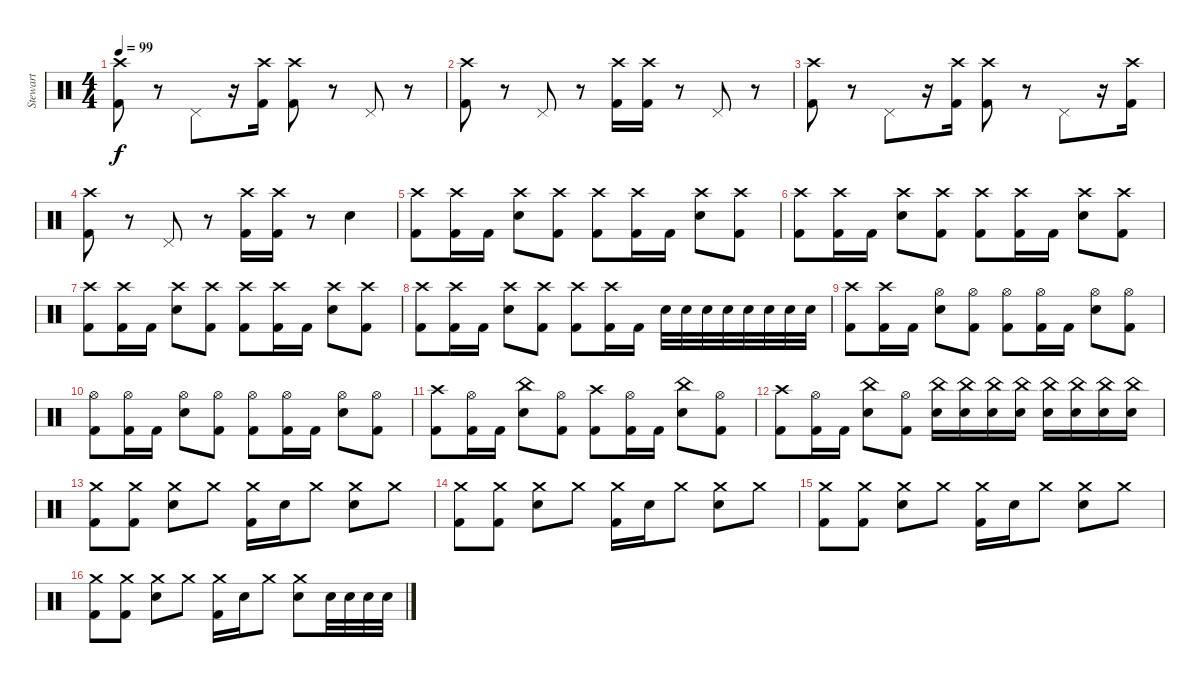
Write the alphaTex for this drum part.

\track ("Stewart" "Stewart") {instrument percussion}
\staff {score}
\articulation defaults
\ts (4 4)
\tempo 99
\clef neutral
\ks c
("Crash high (hit)" "Kick (hit) 2").8{dy f} r.8 "Pedal Hi-Hat (hit)".8 r.16 ("Crash high (hit)" "Kick (hit) 2").16 ("Crash high (hit)" "Kick (hit) 2").8 r.8 "Pedal Hi-Hat (hit)".8 r.8 |
("Crash high (hit)" "Kick (hit) 2").8 r.8 "Pedal Hi-Hat (hit)".8 r.8 ("Crash high (hit)" "Kick (hit) 2").16 ("Crash high (hit)" "Kick (hit) 2").16 r.8 "Pedal Hi-Hat (hit)".8 r.8 |
("Crash high (hit)" "Kick (hit) 2").8 r.8 "Pedal Hi-Hat (hit)".8 r.16 ("Crash high (hit)" "Kick (hit) 2").16 ("Crash high (hit)" "Kick (hit) 2").8 r.8 "Pedal Hi-Hat (hit)".8 r.16 ("Crash high (hit)" "Kick (hit) 2").16 |
("Crash high (hit)" "Kick (hit) 2").8 r.8 "Pedal Hi-Hat (hit)".8 r.8 ("Crash high (hit)" "Kick (hit) 2").16 ("Crash high (hit)" "Kick (hit) 2").16 r.8 "Electric Snare (hit)".4 |
("Crash high (hit)" "Kick (hit) 2").8 ("Crash high (hit)" "Kick (hit) 2").16 "Kick (hit) 2".16 ("Crash high (hit)" "Snare (hit) 2").8 ("Crash high (hit)" "Kick (hit) 2").8 ("Crash high (hit)" "Kick (hit) 2").8 ("Crash high (hit)" "Kick (hit) 2").16 "Kick (hit) 2".16 ("Crash high (hit)" "Snare (hit) 2").8 ("Crash high (hit)" "Kick (hit) 2").8 |
("Crash high (hit)" "Kick (hit) 2").8 ("Crash high (hit)" "Kick (hit) 2").16 "Kick (hit) 2".16 ("Crash high (hit)" "Snare (hit) 2").8 ("Crash high (hit)" "Kick (hit) 2").8 ("Crash high (hit)" "Kick (hit) 2").8 ("Crash high (hit)" "Kick (hit) 2").16 "Kick (hit) 2".16 ("Crash high (hit)" "Snare (hit) 2").8 ("Crash high (hit)" "Kick (hit) 2").8 |
("Crash high (hit)" "Kick (hit) 2").8 ("Crash high (hit)" "Kick (hit) 2").16 "Kick (hit) 2".16 ("Crash high (hit)" "Snare (hit) 2").8 ("Crash high (hit)" "Kick (hit) 2").8 ("Crash high (hit)" "Kick (hit) 2").8 ("Crash high (hit)" "Kick (hit) 2").16 "Kick (hit) 2".16 ("Crash high (hit)" "Snare (hit) 2").8 ("Crash high (hit)" "Kick (hit) 2").8 |
("Crash high (hit)" "Kick (hit) 2").8 ("Crash high (hit)" "Kick (hit) 2").16 "Kick (hit) 2".16 ("Crash high (hit)" "Snare (hit) 2").8 ("Crash high (hit)" "Kick (hit) 2").8 ("Crash high (hit)" "Kick (hit) 2").8 ("Crash high (hit)" "Kick (hit) 2").16 "Kick (hit) 2".16 "Snare (hit) 2".32 "Snare (hit) 2".32 "Snare (hit) 2".32 "Snare (hit) 2".32 "Snare (hit) 2".32 "Snare (hit) 2".32 "Snare (hit) 2".32 "Snare (hit) 2".32 |
("Crash high (hit)" "Kick (hit) 2").8 ("Crash high (hit)" "Kick (hit) 2").16 "Kick (hit) 2".16 ("Hi-Hat (open)" "Snare (hit) 2").8 ("Hi-Hat (open)" "Kick (hit) 2").8 ("Hi-Hat (open)" "Kick (hit) 2").8 ("Hi-Hat (open)" "Kick (hit) 2").16 "Kick (hit) 2".16 ("Hi-Hat (open)" "Snare (hit) 2").8 ("Hi-Hat (open)" "Kick (hit) 2").8 |
("Hi-Hat (open)" "Kick (hit) 2").8 ("Hi-Hat (open)" "Kick (hit) 2").16 "Kick (hit) 2".16 ("Hi-Hat (open)" "Snare (hit) 2").8 ("Hi-Hat (open)" "Kick (hit) 2").8 ("Hi-Hat (open)" "Kick (hit) 2").8 ("Hi-Hat (open)" "Kick (hit) 2").16 "Kick (hit) 2".16 ("Hi-Hat (open)" "Snare (hit) 2").8 ("Hi-Hat (open)" "Kick (hit) 2").8 |
("Crash high (hit)" "Kick (hit) 2").8 ("Hi-Hat (open)" "Kick (hit) 2").16 "Kick (hit) 2".16 ("China (hit)" "Snare (hit) 2").8 ("Hi-Hat (open)" "Kick (hit) 2").8 ("Crash high (hit)" "Kick (hit) 2").8 ("Hi-Hat (open)" "Kick (hit) 2").16 "Kick (hit) 2".16 ("China (hit)" "Snare (hit) 2").8 ("Hi-Hat (open)" "Kick (hit) 2").8 |
("Crash high (hit)" "Kick (hit) 2").8 ("Hi-Hat (open)" "Kick (hit) 2").16 "Kick (hit) 2".16 ("China (hit)" "Snare (hit) 2").8 ("Hi-Hat (open)" "Kick (hit) 2").8 ("China (hit)" "Snare (hit) 2").16 ("China (hit)" "Snare (hit) 2").16 ("China (hit)" "Snare (hit) 2").16 ("China (hit)" "Snare (hit) 2").16 ("China (hit)" "Snare (hit) 2").16 ("China (hit)" "Snare (hit) 2").16 ("China (hit)" "Snare (hit) 2").16 ("China (hit)" "Snare (hit) 2").16 |
("Crash medium (hit)" "Kick (hit) 2").8 ("Crash medium (hit)" "Kick (hit) 2").8 ("Crash medium (hit)" "Snare (hit) 2").8 "Crash medium (hit)".8 ("Crash medium (hit)" "Kick (hit) 2").16 "Snare (hit) 2".16 "Crash medium (hit)".8 ("Crash medium (hit)" "Snare (hit) 2").8 "Crash medium (hit)".8 |
("Crash medium (hit)" "Kick (hit) 2").8 ("Crash medium (hit)" "Kick (hit) 2").8 ("Crash medium (hit)" "Snare (hit) 2").8 "Crash medium (hit)".8 ("Crash medium (hit)" "Kick (hit) 2").16 "Snare (hit) 2".16 "Crash medium (hit)".8 ("Crash medium (hit)" "Snare (hit) 2").8 "Crash medium (hit)".8 |
("Crash medium (hit)" "Kick (hit) 2").8 ("Crash medium (hit)" "Kick (hit) 2").8 ("Crash medium (hit)" "Snare (hit) 2").8 "Crash medium (hit)".8 ("Crash medium (hit)" "Kick (hit) 2").16 "Snare (hit) 2".16 "Crash medium (hit)".8 ("Crash medium (hit)" "Snare (hit) 2").8 "Crash medium (hit)".8 |
("Crash medium (hit)" "Kick (hit) 2").8 ("Crash medium (hit)" "Kick (hit) 2").8 ("Crash medium (hit)" "Snare (hit) 2").8 "Crash medium (hit)".8 ("Crash medium (hit)" "Kick (hit) 2").16 "Snare (hit) 2".16 "Crash medium (hit)".8 ("Crash medium (hit)" "Snare (hit) 2").8 "Snare (hit) 2".32 "Snare (hit) 2".32 "Snare (hit) 2".32 "Snare (hit) 2".32
